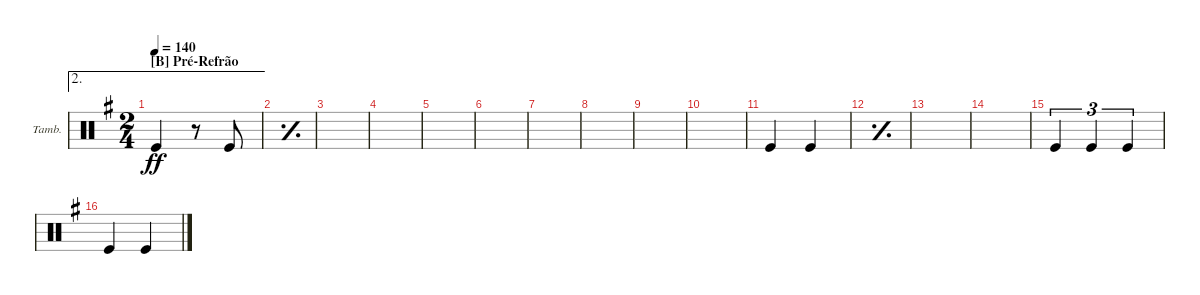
\defaultSystemsLayout 4
\bracketExtendMode groupsimilarinstruments
\firstSystemTrackNameOrientation horizontal
\otherSystemsTrackNameOrientation horizontal
\track ("Tambourine" "Tamb.") {instrument percussion}
\staff {score}
\articulation defaults
\ae 2
\ts (2 4)
\section ("B" "Pré-Refrão")
\tempo 140
\clef neutral
\ks g "Kick (hit)".4{dy ff}
r.8 "Kick (hit)".8 |
\simile simple
|
|
|
|
|
|
|
|
|
\simile none "Kick (hit)".4 "Kick (hit)".4
|
\simile simple
|
|
|
\simile none "Kick (hit)".4{tu (3 2)} "Kick (hit)".4{tu (3 2)} "Kick (hit)".4{tu (3 2)}
|
"Kick (hit)".4 "Kick (hit)".4
